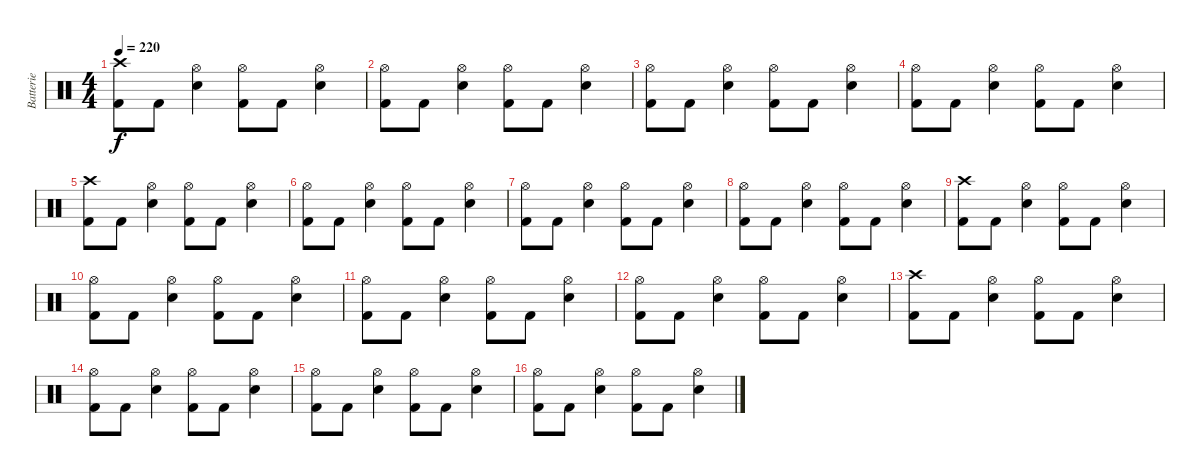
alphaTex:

\track ("Batterie" "Batterie") {instrument percussion}
\staff {score}
\articulation defaults
\ts (4 4)
\tempo 220
\clef neutral
\ks c
("Crash high (hit)" "Kick (hit) 2").8{dy f} "Kick (hit) 2".8 ("Hi-Hat (open)" "Electric Snare (hit)").4 ("Hi-Hat (open)" "Kick (hit) 2").8 "Kick (hit) 2".8 ("Hi-Hat (open)" "Electric Snare (hit)").4 |
("Hi-Hat (open)" "Kick (hit) 2").8 "Kick (hit) 2".8 ("Hi-Hat (open)" "Electric Snare (hit)").4 ("Hi-Hat (open)" "Kick (hit) 2").8 "Kick (hit) 2".8 ("Hi-Hat (open)" "Electric Snare (hit)").4 |
("Hi-Hat (open)" "Kick (hit) 2").8 "Kick (hit) 2".8 ("Hi-Hat (open)" "Electric Snare (hit)").4 ("Hi-Hat (open)" "Kick (hit) 2").8 "Kick (hit) 2".8 ("Hi-Hat (open)" "Electric Snare (hit)").4 |
("Hi-Hat (open)" "Kick (hit) 2").8 "Kick (hit) 2".8 ("Hi-Hat (open)" "Electric Snare (hit)").4 ("Hi-Hat (open)" "Kick (hit) 2").8 "Kick (hit) 2".8 ("Hi-Hat (open)" "Electric Snare (hit)").4 |
("Crash high (hit)" "Kick (hit) 2").8 "Kick (hit) 2".8 ("Hi-Hat (open)" "Electric Snare (hit)").4 ("Hi-Hat (open)" "Kick (hit) 2").8 "Kick (hit) 2".8 ("Hi-Hat (open)" "Electric Snare (hit)").4 |
("Hi-Hat (open)" "Kick (hit) 2").8 "Kick (hit) 2".8 ("Hi-Hat (open)" "Electric Snare (hit)").4 ("Hi-Hat (open)" "Kick (hit) 2").8 "Kick (hit) 2".8 ("Hi-Hat (open)" "Electric Snare (hit)").4 |
("Hi-Hat (open)" "Kick (hit) 2").8 "Kick (hit) 2".8 ("Hi-Hat (open)" "Electric Snare (hit)").4 ("Hi-Hat (open)" "Kick (hit) 2").8 "Kick (hit) 2".8 ("Hi-Hat (open)" "Electric Snare (hit)").4 |
("Hi-Hat (open)" "Kick (hit) 2").8 "Kick (hit) 2".8 ("Hi-Hat (open)" "Electric Snare (hit)").4 ("Hi-Hat (open)" "Kick (hit) 2").8 "Kick (hit) 2".8 ("Hi-Hat (open)" "Electric Snare (hit)").4 |
("Crash high (hit)" "Kick (hit) 2").8 "Kick (hit) 2".8 ("Hi-Hat (open)" "Electric Snare (hit)").4 ("Hi-Hat (open)" "Kick (hit) 2").8 "Kick (hit) 2".8 ("Hi-Hat (open)" "Electric Snare (hit)").4 |
("Hi-Hat (open)" "Kick (hit) 2").8 "Kick (hit) 2".8 ("Hi-Hat (open)" "Electric Snare (hit)").4 ("Hi-Hat (open)" "Kick (hit) 2").8 "Kick (hit) 2".8 ("Hi-Hat (open)" "Electric Snare (hit)").4 |
("Hi-Hat (open)" "Kick (hit) 2").8 "Kick (hit) 2".8 ("Hi-Hat (open)" "Electric Snare (hit)").4 ("Hi-Hat (open)" "Kick (hit) 2").8 "Kick (hit) 2".8 ("Hi-Hat (open)" "Electric Snare (hit)").4 |
("Hi-Hat (open)" "Kick (hit) 2").8 "Kick (hit) 2".8 ("Hi-Hat (open)" "Electric Snare (hit)").4 ("Hi-Hat (open)" "Kick (hit) 2").8 "Kick (hit) 2".8 ("Hi-Hat (open)" "Electric Snare (hit)").4 |
("Crash high (hit)" "Kick (hit) 2").8 "Kick (hit) 2".8 ("Hi-Hat (open)" "Electric Snare (hit)").4 ("Hi-Hat (open)" "Kick (hit) 2").8 "Kick (hit) 2".8 ("Hi-Hat (open)" "Electric Snare (hit)").4 |
("Hi-Hat (open)" "Kick (hit) 2").8 "Kick (hit) 2".8 ("Hi-Hat (open)" "Electric Snare (hit)").4 ("Hi-Hat (open)" "Kick (hit) 2").8 "Kick (hit) 2".8 ("Hi-Hat (open)" "Electric Snare (hit)").4 |
("Hi-Hat (open)" "Kick (hit) 2").8 "Kick (hit) 2".8 ("Hi-Hat (open)" "Electric Snare (hit)").4 ("Hi-Hat (open)" "Kick (hit) 2").8 "Kick (hit) 2".8 ("Hi-Hat (open)" "Electric Snare (hit)").4 |
("Hi-Hat (open)" "Kick (hit) 2").8 "Kick (hit) 2".8 ("Hi-Hat (open)" "Electric Snare (hit)").4 ("Hi-Hat (open)" "Kick (hit) 2").8 "Kick (hit) 2".8 ("Hi-Hat (open)" "Electric Snare (hit)").4
